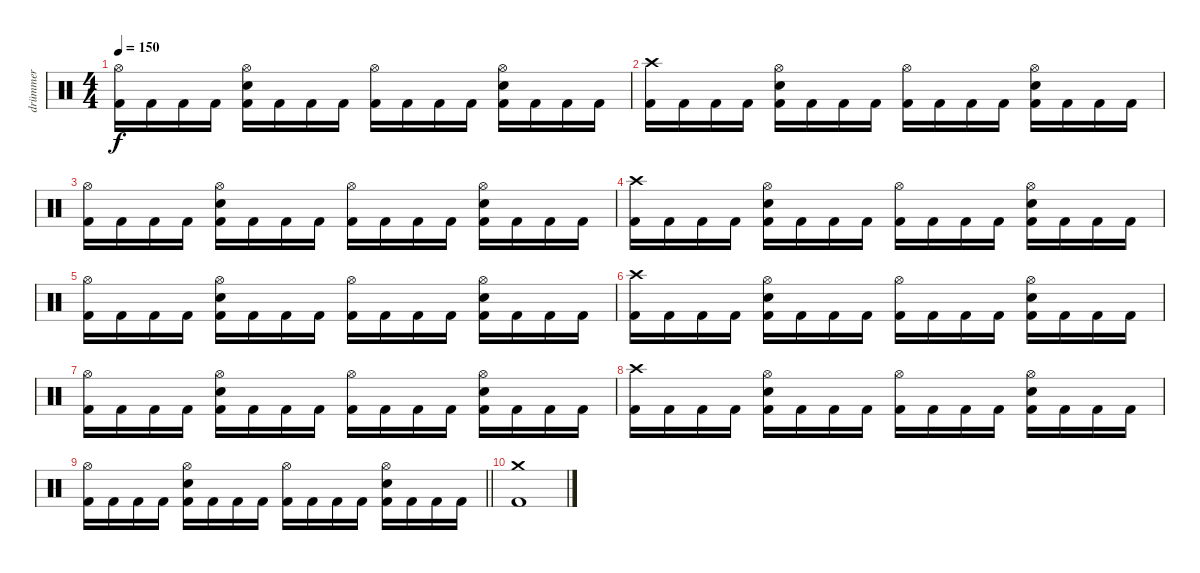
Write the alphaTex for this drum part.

\track ("drümmer" "drümmer") {instrument percussion}
\staff {score}
\articulation defaults
\ts (4 4)
\tempo 150
\clef neutral
\ks c
("Hi-Hat (open)" "Kick (hit) 2").16{dy f} "Kick (hit) 2".16 "Kick (hit) 2".16 "Kick (hit) 2".16 ("Hi-Hat (open)" "Snare (hit) 2" "Kick (hit) 2").16 "Kick (hit) 2".16 "Kick (hit) 2".16 "Kick (hit) 2".16 ("Hi-Hat (open)" "Kick (hit) 2").16 "Kick (hit) 2".16 "Kick (hit) 2".16 "Kick (hit) 2".16 ("Hi-Hat (open)" "Snare (hit) 2" "Kick (hit) 2").16 "Kick (hit) 2".16 "Kick (hit) 2".16 "Kick (hit) 2".16 |
("Crash high (hit)" "Kick (hit) 2").16 "Kick (hit) 2".16 "Kick (hit) 2".16 "Kick (hit) 2".16 ("Hi-Hat (open)" "Snare (hit) 2" "Kick (hit) 2").16 "Kick (hit) 2".16 "Kick (hit) 2".16 "Kick (hit) 2".16 ("Hi-Hat (open)" "Kick (hit) 2").16 "Kick (hit) 2".16 "Kick (hit) 2".16 "Kick (hit) 2".16 ("Hi-Hat (open)" "Snare (hit) 2" "Kick (hit) 2").16 "Kick (hit) 2".16 "Kick (hit) 2".16 "Kick (hit) 2".16 |
("Hi-Hat (open)" "Kick (hit) 2").16 "Kick (hit) 2".16 "Kick (hit) 2".16 "Kick (hit) 2".16 ("Hi-Hat (open)" "Snare (hit) 2" "Kick (hit) 2").16 "Kick (hit) 2".16 "Kick (hit) 2".16 "Kick (hit) 2".16 ("Hi-Hat (open)" "Kick (hit) 2").16 "Kick (hit) 2".16 "Kick (hit) 2".16 "Kick (hit) 2".16 ("Hi-Hat (open)" "Snare (hit) 2" "Kick (hit) 2").16 "Kick (hit) 2".16 "Kick (hit) 2".16 "Kick (hit) 2".16 |
("Crash high (hit)" "Kick (hit) 2").16 "Kick (hit) 2".16 "Kick (hit) 2".16 "Kick (hit) 2".16 ("Hi-Hat (open)" "Snare (hit) 2" "Kick (hit) 2").16 "Kick (hit) 2".16 "Kick (hit) 2".16 "Kick (hit) 2".16 ("Hi-Hat (open)" "Kick (hit) 2").16 "Kick (hit) 2".16 "Kick (hit) 2".16 "Kick (hit) 2".16 ("Hi-Hat (open)" "Snare (hit) 2" "Kick (hit) 2").16 "Kick (hit) 2".16 "Kick (hit) 2".16 "Kick (hit) 2".16 |
("Hi-Hat (open)" "Kick (hit) 2").16 "Kick (hit) 2".16 "Kick (hit) 2".16 "Kick (hit) 2".16 ("Hi-Hat (open)" "Snare (hit) 2" "Kick (hit) 2").16 "Kick (hit) 2".16 "Kick (hit) 2".16 "Kick (hit) 2".16 ("Hi-Hat (open)" "Kick (hit) 2").16 "Kick (hit) 2".16 "Kick (hit) 2".16 "Kick (hit) 2".16 ("Hi-Hat (open)" "Snare (hit) 2" "Kick (hit) 2").16 "Kick (hit) 2".16 "Kick (hit) 2".16 "Kick (hit) 2".16 |
("Crash high (hit)" "Kick (hit) 2").16 "Kick (hit) 2".16 "Kick (hit) 2".16 "Kick (hit) 2".16 ("Hi-Hat (open)" "Snare (hit) 2" "Kick (hit) 2").16 "Kick (hit) 2".16 "Kick (hit) 2".16 "Kick (hit) 2".16 ("Hi-Hat (open)" "Kick (hit) 2").16 "Kick (hit) 2".16 "Kick (hit) 2".16 "Kick (hit) 2".16 ("Hi-Hat (open)" "Snare (hit) 2" "Kick (hit) 2").16 "Kick (hit) 2".16 "Kick (hit) 2".16 "Kick (hit) 2".16 |
("Hi-Hat (open)" "Kick (hit) 2").16 "Kick (hit) 2".16 "Kick (hit) 2".16 "Kick (hit) 2".16 ("Hi-Hat (open)" "Snare (hit) 2" "Kick (hit) 2").16 "Kick (hit) 2".16 "Kick (hit) 2".16 "Kick (hit) 2".16 ("Hi-Hat (open)" "Kick (hit) 2").16 "Kick (hit) 2".16 "Kick (hit) 2".16 "Kick (hit) 2".16 ("Hi-Hat (open)" "Snare (hit) 2" "Kick (hit) 2").16 "Kick (hit) 2".16 "Kick (hit) 2".16 "Kick (hit) 2".16 |
("Crash high (hit)" "Kick (hit) 2").16 "Kick (hit) 2".16 "Kick (hit) 2".16 "Kick (hit) 2".16 ("Hi-Hat (open)" "Snare (hit) 2" "Kick (hit) 2").16 "Kick (hit) 2".16 "Kick (hit) 2".16 "Kick (hit) 2".16 ("Hi-Hat (open)" "Kick (hit) 2").16 "Kick (hit) 2".16 "Kick (hit) 2".16 "Kick (hit) 2".16 ("Hi-Hat (open)" "Snare (hit) 2" "Kick (hit) 2").16 "Kick (hit) 2".16 "Kick (hit) 2".16 "Kick (hit) 2".16 |
\barLineRight lightlight
("Hi-Hat (open)" "Kick (hit) 2").16 "Kick (hit) 2".16 "Kick (hit) 2".16 "Kick (hit) 2".16 ("Hi-Hat (open)" "Snare (hit) 2" "Kick (hit) 2").16 "Kick (hit) 2".16 "Kick (hit) 2".16 "Kick (hit) 2".16 ("Hi-Hat (open)" "Kick (hit) 2").16 "Kick (hit) 2".16 "Kick (hit) 2".16 "Kick (hit) 2".16 ("Hi-Hat (open)" "Snare (hit) 2" "Kick (hit) 2").16 "Kick (hit) 2".16 "Kick (hit) 2".16 "Kick (hit) 2".16 |
("Crash medium (hit)" "Kick (hit) 2").1
